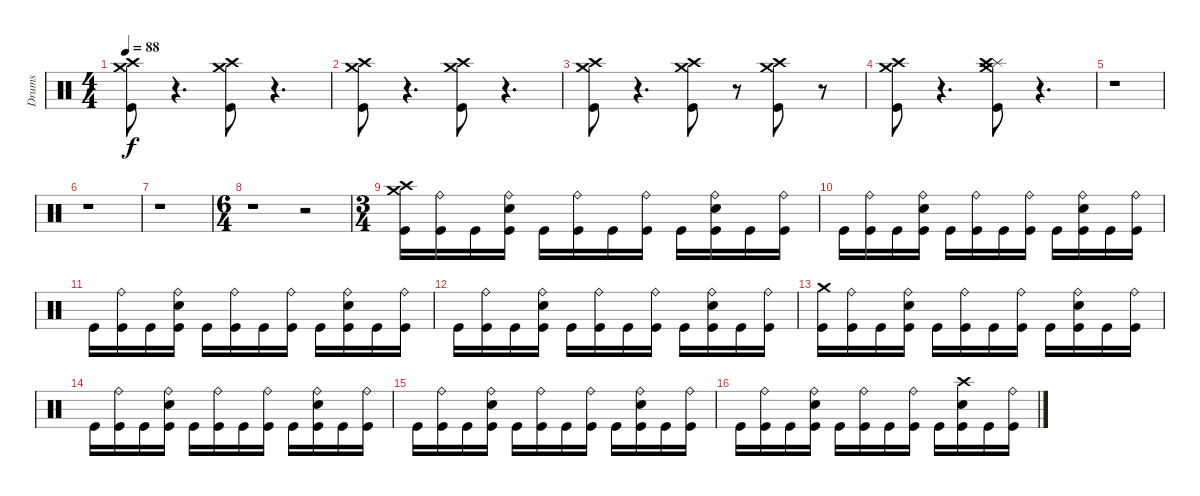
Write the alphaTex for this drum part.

\track ("Drums" "Drums") {instrument percussion}
\staff {score}
\articulation defaults
\ts (4 4)
\tempo 88
\clef neutral
\ks c
("Crash high (hit)" "Kick (hit)" "Crash medium (hit)").8{dy f} r.4{d} ("Kick (hit)" "Crash high (hit)" "Crash medium (hit)").8 r.4{d} |
("Crash high (hit)" "Crash medium (hit)" "Kick (hit)").8 r.4{d} ("Crash high (hit)" "Crash medium (hit)" "Kick (hit)").8 r.4{d} |
("Crash high (hit)" "Crash medium (hit)" "Kick (hit)").8 r.4{d} ("Crash high (hit)" "Crash medium (hit)" "Kick (hit)").8 r.8 ("Kick (hit)" "Crash high (hit)" "Crash medium (hit)").8 r.8 |
("Crash high (hit)" "Crash medium (hit)" "Kick (hit)").8 r.4{d} ("Crash medium (hit)" "Splash (hit)" "Crash high (hit)" "Kick (hit)").8 r.4{d} |
r.1 |
r.1 |
r.1 |
\ts (6 4)
r.1 r.2 |
\ts (3 4)
("Crash high (hit)" "Crash medium (hit)" "Kick (hit)").16 ("Ride (bell)" "Kick (hit)").16 "Kick (hit)".16 ("Ride (bell)" "Snare (hit) 2" "Kick (hit)").16 "Kick (hit)".16 ("Ride (bell)" "Kick (hit)").16 "Kick (hit)".16 ("Ride (bell)" "Kick (hit)").16 "Kick (hit)".16 ("Ride (bell)" "Snare (hit) 2" "Kick (hit)").16 "Kick (hit)".16 ("Ride (bell)" "Kick (hit)").16 |
"Kick (hit)".16 ("Ride (bell)" "Kick (hit)").16 "Kick (hit)".16 ("Ride (bell)" "Snare (hit) 2" "Kick (hit)").16 "Kick (hit)".16 ("Ride (bell)" "Kick (hit)").16 "Kick (hit)".16 ("Ride (bell)" "Kick (hit)").16 "Kick (hit)".16 ("Ride (bell)" "Snare (hit) 2" "Kick (hit)").16 "Kick (hit)".16 ("Ride (bell)" "Kick (hit)").16 |
"Kick (hit)".16 ("Ride (bell)" "Kick (hit)").16 "Kick (hit)".16 ("Ride (bell)" "Snare (hit) 2" "Kick (hit)").16 "Kick (hit)".16 ("Ride (bell)" "Kick (hit)").16 "Kick (hit)".16 ("Ride (bell)" "Kick (hit)").16 "Kick (hit)".16 ("Ride (bell)" "Snare (hit) 2" "Kick (hit)").16 "Kick (hit)".16 ("Ride (bell)" "Kick (hit)").16 |
"Kick (hit)".16 ("Ride (bell)" "Kick (hit)").16 "Kick (hit)".16 ("Ride (bell)" "Snare (hit) 2" "Kick (hit)").16 "Kick (hit)".16 ("Ride (bell)" "Kick (hit)").16 "Kick (hit)".16 ("Ride (bell)" "Kick (hit)").16 "Kick (hit)".16 ("Ride (bell)" "Snare (hit) 2" "Kick (hit)").16 "Kick (hit)".16 ("Ride (bell)" "Kick (hit)").16 |
("Crash medium (hit)" "Kick (hit)").16 ("Ride (bell)" "Kick (hit)").16 "Kick (hit)".16 ("Ride (bell)" "Snare (hit) 2" "Kick (hit)").16 "Kick (hit)".16 ("Ride (bell)" "Kick (hit)").16 "Kick (hit)".16 ("Ride (bell)" "Kick (hit)").16 "Kick (hit)".16 ("Ride (bell)" "Snare (hit) 2" "Kick (hit)").16 "Kick (hit)".16 ("Ride (bell)" "Kick (hit)").16 |
"Kick (hit)".16 ("Ride (bell)" "Kick (hit)").16 "Kick (hit)".16 ("Ride (bell)" "Snare (hit) 2" "Kick (hit)").16 "Kick (hit)".16 ("Ride (bell)" "Kick (hit)").16 "Kick (hit)".16 ("Ride (bell)" "Kick (hit)").16 "Kick (hit)".16 ("Ride (bell)" "Snare (hit) 2" "Kick (hit)").16 "Kick (hit)".16 ("Ride (bell)" "Kick (hit)").16 |
"Kick (hit)".16 ("Ride (bell)" "Kick (hit)").16 "Kick (hit)".16 ("Ride (bell)" "Snare (hit) 2" "Kick (hit)").16 "Kick (hit)".16 ("Ride (bell)" "Kick (hit)").16 "Kick (hit)".16 ("Ride (bell)" "Kick (hit)").16 "Kick (hit)".16 ("Ride (bell)" "Snare (hit) 2" "Kick (hit)").16 "Kick (hit)".16 ("Ride (bell)" "Kick (hit)").16 |
"Kick (hit)".16 ("Ride (bell)" "Kick (hit)").16 "Kick (hit)".16 ("Ride (bell)" "Snare (hit) 2" "Kick (hit)").16 "Kick (hit)".16 ("Ride (bell)" "Kick (hit)").16 "Kick (hit)".16 ("Ride (bell)" "Kick (hit)").16 "Kick (hit)".16 ("Crash high (hit)" "Snare (hit) 2" "Kick (hit)").16 "Kick (hit)".16 ("Ride (bell)" "Kick (hit)").16
